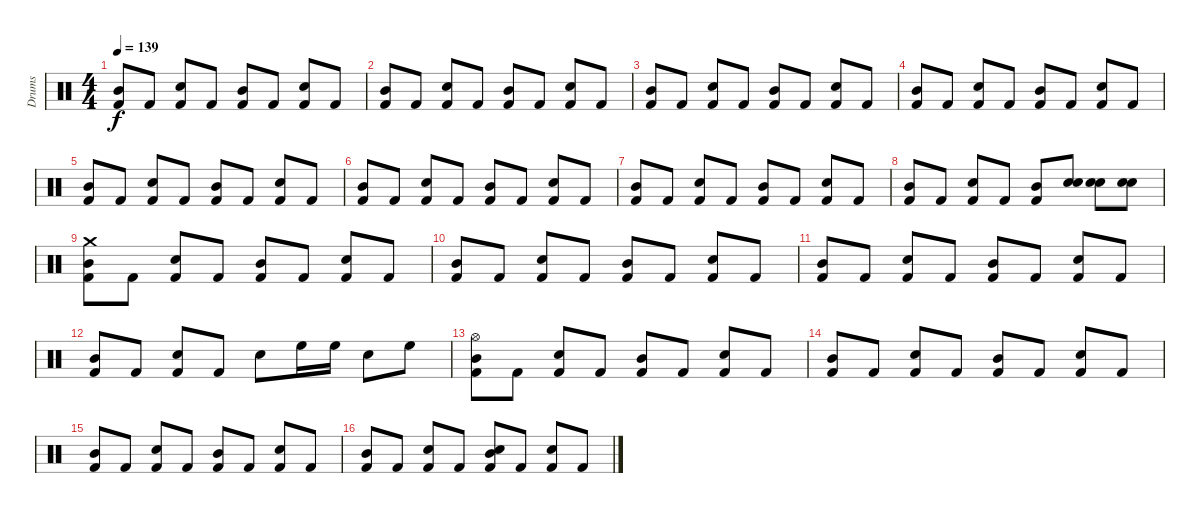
\track ("Drums" "Drums") {instrument percussion}
\staff {score}
\articulation defaults
\ts (4 4)
\tempo 139
\clef neutral
\ks c
("Kick (hit) 2" "Mid Tom (hit)").8{dy f} "Kick (hit) 2".8 ("Electric Snare (hit)" "Kick (hit) 2").8 "Kick (hit) 2".8 ("Kick (hit) 2" "Mid Tom (hit)").8 "Kick (hit) 2".8 ("Electric Snare (hit)" "Kick (hit) 2").8 "Kick (hit) 2".8 |
("Kick (hit) 2" "Mid Tom (hit)").8 "Kick (hit) 2".8 ("Electric Snare (hit)" "Kick (hit) 2").8 "Kick (hit) 2".8 ("Kick (hit) 2" "Mid Tom (hit)").8 "Kick (hit) 2".8 ("Electric Snare (hit)" "Kick (hit) 2").8 "Kick (hit) 2".8 |
("Kick (hit) 2" "Mid Tom (hit)").8 "Kick (hit) 2".8 ("Electric Snare (hit)" "Kick (hit) 2").8 "Kick (hit) 2".8 ("Kick (hit) 2" "Mid Tom (hit)").8 "Kick (hit) 2".8 ("Electric Snare (hit)" "Kick (hit) 2").8 "Kick (hit) 2".8 |
("Kick (hit) 2" "Mid Tom (hit)").8 "Kick (hit) 2".8 ("Electric Snare (hit)" "Kick (hit) 2").8 "Kick (hit) 2".8 ("Kick (hit) 2" "Mid Tom (hit)").8 "Kick (hit) 2".8 ("Electric Snare (hit)" "Kick (hit) 2").8 "Kick (hit) 2".8 |
("Kick (hit) 2" "Mid Tom (hit)").8 "Kick (hit) 2".8 ("Electric Snare (hit)" "Kick (hit) 2").8 "Kick (hit) 2".8 ("Kick (hit) 2" "Mid Tom (hit)").8 "Kick (hit) 2".8 ("Electric Snare (hit)" "Kick (hit) 2").8 "Kick (hit) 2".8 |
("Kick (hit) 2" "Mid Tom (hit)").8 "Kick (hit) 2".8 ("Electric Snare (hit)" "Kick (hit) 2").8 "Kick (hit) 2".8 ("Kick (hit) 2" "Mid Tom (hit)").8 "Kick (hit) 2".8 ("Electric Snare (hit)" "Kick (hit) 2").8 "Kick (hit) 2".8 |
("Kick (hit) 2" "Mid Tom (hit)").8 "Kick (hit) 2".8 ("Electric Snare (hit)" "Kick (hit) 2").8 "Kick (hit) 2".8 ("Kick (hit) 2" "Mid Tom (hit)").8 "Kick (hit) 2".8 ("Electric Snare (hit)" "Kick (hit) 2").8 "Kick (hit) 2".8 |
("Kick (hit) 2" "Mid Tom (hit)").8 "Kick (hit) 2".8 ("Electric Snare (hit)" "Kick (hit) 2").8 "Kick (hit) 2".8 ("Kick (hit) 2" "Mid Tom (hit)").8 ("Electric Snare (hit)" "Electric Snare (hit)").8 ("Electric Snare (hit)" "Electric Snare (hit)").8 ("Electric Snare (hit)" "Electric Snare (hit)").8 |
("Kick (hit) 2" "Mid Tom (hit)" "Crash medium (hit)").8 "Kick (hit) 2".8 ("Electric Snare (hit)" "Kick (hit) 2").8 "Kick (hit) 2".8 ("Kick (hit) 2" "Mid Tom (hit)").8 "Kick (hit) 2".8 ("Electric Snare (hit)" "Kick (hit) 2").8 "Kick (hit) 2".8 |
("Kick (hit) 2" "Mid Tom (hit)").8 "Kick (hit) 2".8 ("Electric Snare (hit)" "Kick (hit) 2").8 "Kick (hit) 2".8 ("Kick (hit) 2" "Mid Tom (hit)").8 "Kick (hit) 2".8 ("Electric Snare (hit)" "Kick (hit) 2").8 "Kick (hit) 2".8 |
("Kick (hit) 2" "Mid Tom (hit)").8 "Kick (hit) 2".8 ("Electric Snare (hit)" "Kick (hit) 2").8 "Kick (hit) 2".8 ("Kick (hit) 2" "Mid Tom (hit)").8 "Kick (hit) 2".8 ("Electric Snare (hit)" "Kick (hit) 2").8 "Kick (hit) 2".8 |
("Kick (hit) 2" "Mid Tom (hit)").8 "Kick (hit) 2".8 ("Electric Snare (hit)" "Kick (hit) 2").8 "Kick (hit) 2".8 "Electric Snare (hit)".8 "High Floor Tom (hit)".16 "High Floor Tom (hit)".16 "Electric Snare (hit)".8 "High Floor Tom (hit)".8 |
("Kick (hit) 2" "Mid Tom (hit)" "Hi-Hat (open)").8 "Kick (hit) 2".8 ("Electric Snare (hit)" "Kick (hit) 2").8 "Kick (hit) 2".8 ("Kick (hit) 2" "Mid Tom (hit)").8 "Kick (hit) 2".8 ("Electric Snare (hit)" "Kick (hit) 2").8 "Kick (hit) 2".8 |
("Kick (hit) 2" "Mid Tom (hit)").8 "Kick (hit) 2".8 ("Electric Snare (hit)" "Kick (hit) 2").8 "Kick (hit) 2".8 ("Kick (hit) 2" "Mid Tom (hit)").8 "Kick (hit) 2".8 ("Electric Snare (hit)" "Kick (hit) 2").8 "Kick (hit) 2".8 |
("Kick (hit) 2" "Mid Tom (hit)").8 "Kick (hit) 2".8 ("Electric Snare (hit)" "Kick (hit) 2").8 "Kick (hit) 2".8 ("Kick (hit) 2" "Mid Tom (hit)").8 "Kick (hit) 2".8 ("Electric Snare (hit)" "Kick (hit) 2").8 "Kick (hit) 2".8 |
("Kick (hit) 2" "Mid Tom (hit)").8 "Kick (hit) 2".8 ("Electric Snare (hit)" "Kick (hit) 2").8 "Kick (hit) 2".8 ("Electric Snare (hit)" "Kick (hit) 2" "Mid Tom (hit)").8 "Kick (hit) 2".8 ("Electric Snare (hit)" "Kick (hit) 2").8 "Kick (hit) 2".8
